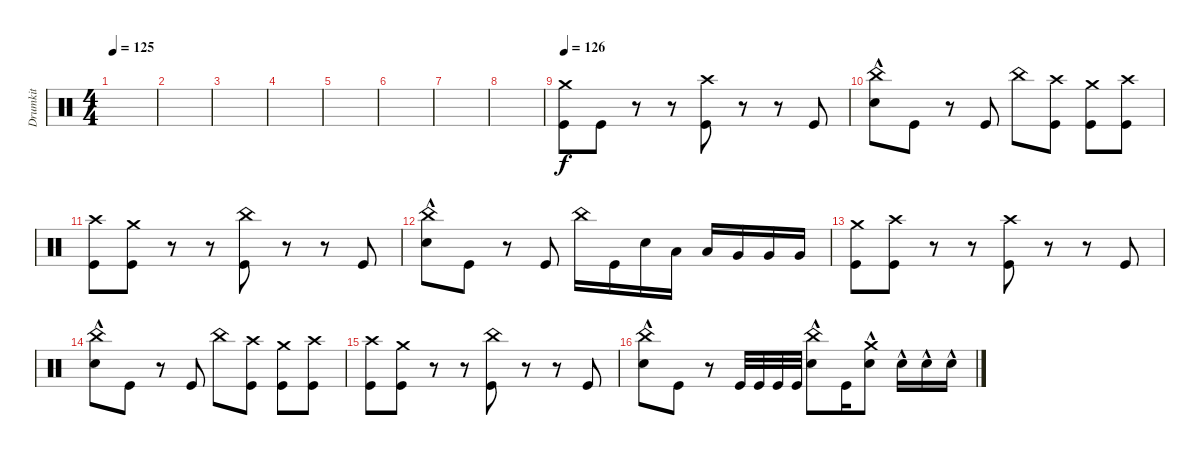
\track ("Drumkit" "Drumkit") {instrument percussion}
\staff {score}
\articulation defaults
\ts (4 4)
\tempo 125
\clef neutral
\ks c
|
|
|
|
|
|
|
|
\tempo 126
("Crash medium (hit)" "Kick (hit)").8 "Kick (hit)".8 r.8 r.8 ("Kick (hit)" "Crash high (hit)").8 r.8 r.8 "Kick (hit)".8 |
("Snare (hit) 2"{hac} "China (hit)").8 "Kick (hit)".8 r.8 "Kick (hit)".8 "China (hit)".8 ("Kick (hit)" "Crash high (hit)").8 ("Kick (hit)" "Crash medium (hit)").8 ("Kick (hit)" "Crash high (hit)").8 |
("Kick (hit)" "Crash high (hit)").8 ("Kick (hit)" "Crash medium (hit)").8 r.8 r.8 ("Kick (hit)" "China (hit)").8 r.8 r.8 "Kick (hit)".8 |
("Snare (hit) 2"{hac} "China (hit)").8 "Kick (hit)".8 r.8 "Kick (hit)".8 "China (hit)".16 "Kick (hit)".16 "Snare (hit) 2".16 "Low Tom (hit)".16 "Low Tom (hit)".16 "Very Low Tom (hit)".16 "Very Low Tom (hit)".16 "Very Low Tom (hit)".16 |
("Crash medium (hit)" "Kick (hit)").8 ("Kick (hit)" "Crash high (hit)").8 r.8 r.8 ("Kick (hit)" "Crash high (hit)").8 r.8 r.8 "Kick (hit)".8 |
("Snare (hit) 2"{hac} "China (hit)").8 "Kick (hit)".8 r.8 "Kick (hit)".8 "China (hit)".8 ("Kick (hit)" "Crash high (hit)").8 ("Kick (hit)" "Crash medium (hit)").8 ("Kick (hit)" "Crash high (hit)").8 |
("Kick (hit)" "Crash high (hit)").8 ("Kick (hit)" "Crash medium (hit)").8 r.8 r.8 ("Kick (hit)" "China (hit)").8 r.8 r.8 "Kick (hit)".8 |
("Snare (hit) 2"{hac} "China (hit)").8 "Kick (hit)".8 r.8 "Kick (hit)".32 "Kick (hit)".32 "Kick (hit)".32 "Kick (hit)".32 ("Snare (hit) 2"{hac} "China (hit)").8 "Kick (hit)".16 ("Snare (hit) 2"{hac} "Crash medium (hit)").8 "Snare (hit) 2"{hac}.16 "Snare (hit) 2"{hac}.16 "Snare (hit) 2"{hac}.16
